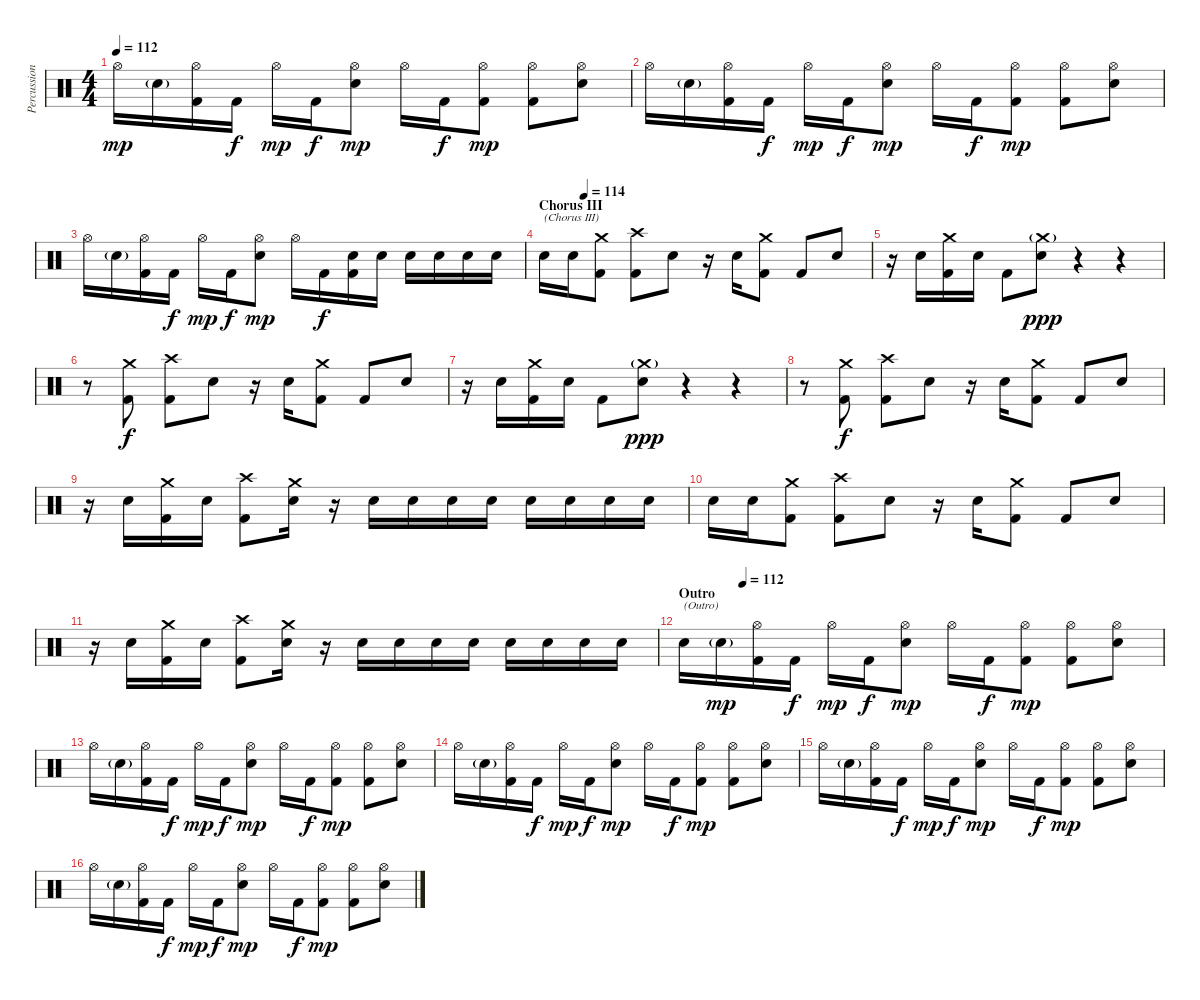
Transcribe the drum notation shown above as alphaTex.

\track ("Percussion" "Percussion") {instrument percussion}
\staff {score}
\articulation defaults
\ts (4 4)
\tempo 112
\clef neutral
\ks c "Hi-Hat (open)".16{dy mp} "Electric Snare (hit)"{g}.16
("Hi-Hat (open)" "Kick (hit) 2").16 "Kick (hit) 2".16{dy f} "Hi-Hat (open)".16{dy mp} "Kick (hit) 2".16{dy f} ("Hi-Hat (open)" "Electric Snare (hit)").8{dy mp} "Hi-Hat (open)".16 "Kick (hit) 2".16{dy f} ("Hi-Hat (open)" "Kick (hit) 2").8{dy mp} ("Hi-Hat (open)" "Kick (hit) 2").8 ("Hi-Hat (open)" "Electric Snare (hit)").8 |
"Hi-Hat (open)".16 "Electric Snare (hit)"{g}.16 ("Hi-Hat (open)" "Kick (hit) 2").16 "Kick (hit) 2".16{dy f} "Hi-Hat (open)".16{dy mp} "Kick (hit) 2".16{dy f} ("Hi-Hat (open)" "Electric Snare (hit)").8{dy mp} "Hi-Hat (open)".16 "Kick (hit) 2".16{dy f} ("Hi-Hat (open)" "Kick (hit) 2").8{dy mp} ("Hi-Hat (open)" "Kick (hit) 2").8 ("Hi-Hat (open)" "Electric Snare (hit)").8 |
"Hi-Hat (open)".16 "Electric Snare (hit)"{g}.16 ("Hi-Hat (open)" "Kick (hit) 2").16 "Kick (hit) 2".16{dy f} "Hi-Hat (open)".16{dy mp} "Kick (hit) 2".16{dy f} ("Hi-Hat (open)" "Electric Snare (hit)").8{dy mp} "Hi-Hat (open)".16 "Kick (hit) 2".16{dy f} ("Electric Snare (hit)" "Kick (hit) 2").16 "Electric Snare (hit)".16 "Electric Snare (hit)".16 "Electric Snare (hit)".16 "Electric Snare (hit)".16 "Electric Snare (hit)".16 |
\section ("" "Chorus III")
\tempo (114 0.125)
"Electric Snare (hit)".16{txt "(Chorus III)"} "Electric Snare (hit)".16 ("Crash medium (hit)" "Kick (hit) 2").8 ("Crash high (hit)" "Kick (hit) 2").8 "Electric Snare (hit)".8 r.16 "Electric Snare (hit)".16 ("Crash medium (hit)" "Kick (hit) 2").8 "Kick (hit) 2".8 "Electric Snare (hit)".8 |
r.16 "Electric Snare (hit)".16 ("Crash medium (hit)" "Kick (hit) 2").16 "Electric Snare (hit)".16 "Kick (hit) 2".8 ("Crash medium (hit)"{g} "Electric Snare (hit)").8{dy ppp} r.4 r.4 |
r.8 ("Crash medium (hit)" "Kick (hit) 2").8{dy f} ("Crash high (hit)" "Kick (hit) 2").8 "Electric Snare (hit)".8 r.16 "Electric Snare (hit)".16 ("Crash medium (hit)" "Kick (hit) 2").8 "Kick (hit) 2".8 "Electric Snare (hit)".8 |
r.16 "Electric Snare (hit)".16 ("Crash medium (hit)" "Kick (hit) 2").16 "Electric Snare (hit)".16 "Kick (hit) 2".8 ("Crash medium (hit)"{g} "Electric Snare (hit)").8{dy ppp} r.4 r.4 |
r.8 ("Crash medium (hit)" "Kick (hit) 2").8{dy f} ("Crash high (hit)" "Kick (hit) 2").8 "Electric Snare (hit)".8 r.16 "Electric Snare (hit)".16 ("Crash medium (hit)" "Kick (hit) 2").8 "Kick (hit) 2".8 "Electric Snare (hit)".8 |
r.16 "Electric Snare (hit)".16 ("Crash medium (hit)" "Kick (hit) 2").16 "Electric Snare (hit)".16 ("Crash high (hit)" "Kick (hit) 2").8 ("Crash medium (hit)" "Electric Snare (hit)").16 r.16 "Electric Snare (hit)".16 "Electric Snare (hit)".16 "Electric Snare (hit)".16 "Electric Snare (hit)".16 "Electric Snare (hit)".16 "Electric Snare (hit)".16 "Electric Snare (hit)".16 "Electric Snare (hit)".16 |
"Electric Snare (hit)".16 "Electric Snare (hit)".16 ("Crash medium (hit)" "Kick (hit) 2").8 ("Crash high (hit)" "Kick (hit) 2").8 "Electric Snare (hit)".8 r.16 "Electric Snare (hit)".16 ("Crash medium (hit)" "Kick (hit) 2").8 "Kick (hit) 2".8 "Electric Snare (hit)".8 |
r.16 "Electric Snare (hit)".16 ("Crash medium (hit)" "Kick (hit) 2").16 "Electric Snare (hit)".16 ("Crash high (hit)" "Kick (hit) 2").8 ("Crash medium (hit)" "Electric Snare (hit)").16 r.16 "Electric Snare (hit)".16 "Electric Snare (hit)".16 "Electric Snare (hit)".16 "Electric Snare (hit)".16 "Electric Snare (hit)".16 "Electric Snare (hit)".16 "Electric Snare (hit)".16 "Electric Snare (hit)".16 |
\section ("" "Outro")
\tempo (112 0.125)
"Electric Snare (hit)".16{txt "(Outro)"} "Electric Snare (hit)"{g}.16{dy mp} ("Hi-Hat (open)" "Kick (hit) 2").16 "Kick (hit) 2".16{dy f} "Hi-Hat (open)".16{dy mp} "Kick (hit) 2".16{dy f} ("Hi-Hat (open)" "Electric Snare (hit)").8{dy mp} "Hi-Hat (open)".16 "Kick (hit) 2".16{dy f} ("Hi-Hat (open)" "Kick (hit) 2").8{dy mp} ("Hi-Hat (open)" "Kick (hit) 2").8 ("Hi-Hat (open)" "Electric Snare (hit)").8 |
"Hi-Hat (open)".16 "Electric Snare (hit)"{g}.16 ("Hi-Hat (open)" "Kick (hit) 2").16 "Kick (hit) 2".16{dy f} "Hi-Hat (open)".16{dy mp} "Kick (hit) 2".16{dy f} ("Hi-Hat (open)" "Electric Snare (hit)").8{dy mp} "Hi-Hat (open)".16 "Kick (hit) 2".16{dy f} ("Hi-Hat (open)" "Kick (hit) 2").8{dy mp} ("Hi-Hat (open)" "Kick (hit) 2").8 ("Hi-Hat (open)" "Electric Snare (hit)").8 |
"Hi-Hat (open)".16 "Electric Snare (hit)"{g}.16 ("Hi-Hat (open)" "Kick (hit) 2").16 "Kick (hit) 2".16{dy f} "Hi-Hat (open)".16{dy mp} "Kick (hit) 2".16{dy f} ("Hi-Hat (open)" "Electric Snare (hit)").8{dy mp} "Hi-Hat (open)".16 "Kick (hit) 2".16{dy f} ("Hi-Hat (open)" "Kick (hit) 2").8{dy mp} ("Hi-Hat (open)" "Kick (hit) 2").8 ("Hi-Hat (open)" "Electric Snare (hit)").8 |
"Hi-Hat (open)".16 "Electric Snare (hit)"{g}.16 ("Hi-Hat (open)" "Kick (hit) 2").16 "Kick (hit) 2".16{dy f} "Hi-Hat (open)".16{dy mp} "Kick (hit) 2".16{dy f} ("Hi-Hat (open)" "Electric Snare (hit)").8{dy mp} "Hi-Hat (open)".16 "Kick (hit) 2".16{dy f} ("Hi-Hat (open)" "Kick (hit) 2").8{dy mp} ("Hi-Hat (open)" "Kick (hit) 2").8 ("Hi-Hat (open)" "Electric Snare (hit)").8 |
"Hi-Hat (open)".16 "Electric Snare (hit)"{g}.16 ("Hi-Hat (open)" "Kick (hit) 2").16 "Kick (hit) 2".16{dy f} "Hi-Hat (open)".16{dy mp} "Kick (hit) 2".16{dy f} ("Hi-Hat (open)" "Electric Snare (hit)").8{dy mp} "Hi-Hat (open)".16 "Kick (hit) 2".16{dy f} ("Hi-Hat (open)" "Kick (hit) 2").8{dy mp} ("Hi-Hat (open)" "Kick (hit) 2").8 ("Hi-Hat (open)" "Electric Snare (hit)").8
